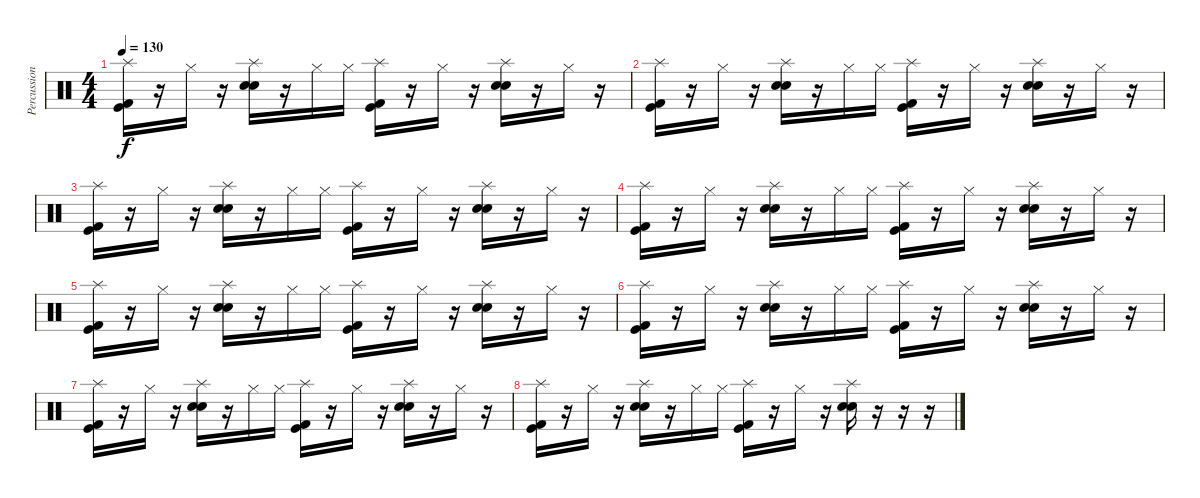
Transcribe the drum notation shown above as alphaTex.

\track ("Percussion" "Percussion") {instrument percussion}
\staff {score}
\articulation defaults
\ts (4 4)
\tempo 130
\clef neutral
\ks c
("Splash (hit)" "Kick (hit) 2" "Kick (hit)").16{dy f} r.16 "Hi-Hat (closed)".16 r.16 ("Splash (hit)" "Snare (hit) 2" "Electric Snare (hit)").16 r.16 "Hi-Hat (closed)".16 "Hi-Hat (closed)".16 ("Splash (hit)" "Kick (hit) 2" "Kick (hit)").16 r.16 "Hi-Hat (closed)".16 r.16 ("Splash (hit)" "Snare (hit) 2" "Electric Snare (hit)").16 r.16 "Hi-Hat (closed)".16 r.16 |
("Splash (hit)" "Kick (hit) 2" "Kick (hit)").16 r.16 "Hi-Hat (closed)".16 r.16 ("Splash (hit)" "Snare (hit) 2" "Electric Snare (hit)").16 r.16 "Hi-Hat (closed)".16 "Hi-Hat (closed)".16 ("Splash (hit)" "Kick (hit) 2" "Kick (hit)").16 r.16 "Hi-Hat (closed)".16 r.16 ("Splash (hit)" "Snare (hit) 2" "Electric Snare (hit)").16 r.16 "Hi-Hat (closed)".16 r.16 |
("Splash (hit)" "Kick (hit) 2" "Kick (hit)").16 r.16 "Hi-Hat (closed)".16 r.16 ("Splash (hit)" "Snare (hit) 2" "Electric Snare (hit)").16 r.16 "Hi-Hat (closed)".16 "Hi-Hat (closed)".16 ("Splash (hit)" "Kick (hit) 2" "Kick (hit)").16 r.16 "Hi-Hat (closed)".16 r.16 ("Splash (hit)" "Snare (hit) 2" "Electric Snare (hit)").16 r.16 "Hi-Hat (closed)".16 r.16 |
("Splash (hit)" "Kick (hit) 2" "Kick (hit)").16 r.16 "Hi-Hat (closed)".16 r.16 ("Splash (hit)" "Snare (hit) 2" "Electric Snare (hit)").16 r.16 "Hi-Hat (closed)".16 "Hi-Hat (closed)".16 ("Splash (hit)" "Kick (hit) 2" "Kick (hit)").16 r.16 "Hi-Hat (closed)".16 r.16 ("Splash (hit)" "Snare (hit) 2" "Electric Snare (hit)").16 r.16 "Hi-Hat (closed)".16 r.16 |
("Splash (hit)" "Kick (hit) 2" "Kick (hit)").16 r.16 "Hi-Hat (closed)".16 r.16 ("Splash (hit)" "Snare (hit) 2" "Electric Snare (hit)").16 r.16 "Hi-Hat (closed)".16 "Hi-Hat (closed)".16 ("Splash (hit)" "Kick (hit) 2" "Kick (hit)").16 r.16 "Hi-Hat (closed)".16 r.16 ("Splash (hit)" "Snare (hit) 2" "Electric Snare (hit)").16 r.16 "Hi-Hat (closed)".16 r.16 |
("Splash (hit)" "Kick (hit) 2" "Kick (hit)").16 r.16 "Hi-Hat (closed)".16 r.16 ("Splash (hit)" "Snare (hit) 2" "Electric Snare (hit)").16 r.16 "Hi-Hat (closed)".16 "Hi-Hat (closed)".16 ("Splash (hit)" "Kick (hit) 2" "Kick (hit)").16 r.16 "Hi-Hat (closed)".16 r.16 ("Splash (hit)" "Snare (hit) 2" "Electric Snare (hit)").16 r.16 "Hi-Hat (closed)".16 r.16 |
("Splash (hit)" "Kick (hit) 2" "Kick (hit)").16 r.16 "Hi-Hat (closed)".16 r.16 ("Splash (hit)" "Snare (hit) 2" "Electric Snare (hit)").16 r.16 "Hi-Hat (closed)".16 "Hi-Hat (closed)".16 ("Splash (hit)" "Kick (hit) 2" "Kick (hit)").16 r.16 "Hi-Hat (closed)".16 r.16 ("Splash (hit)" "Snare (hit) 2" "Electric Snare (hit)").16 r.16 "Hi-Hat (closed)".16 r.16 |
("Splash (hit)" "Kick (hit) 2" "Kick (hit)").16 r.16 "Hi-Hat (closed)".16 r.16 ("Splash (hit)" "Snare (hit) 2" "Electric Snare (hit)").16 r.16 "Hi-Hat (closed)".16 "Hi-Hat (closed)".16 ("Splash (hit)" "Kick (hit) 2" "Kick (hit)").16 r.16 "Hi-Hat (closed)".16 r.16 ("Splash (hit)" "Snare (hit) 2" "Electric Snare (hit)").16 r.16 r.16 r.16
